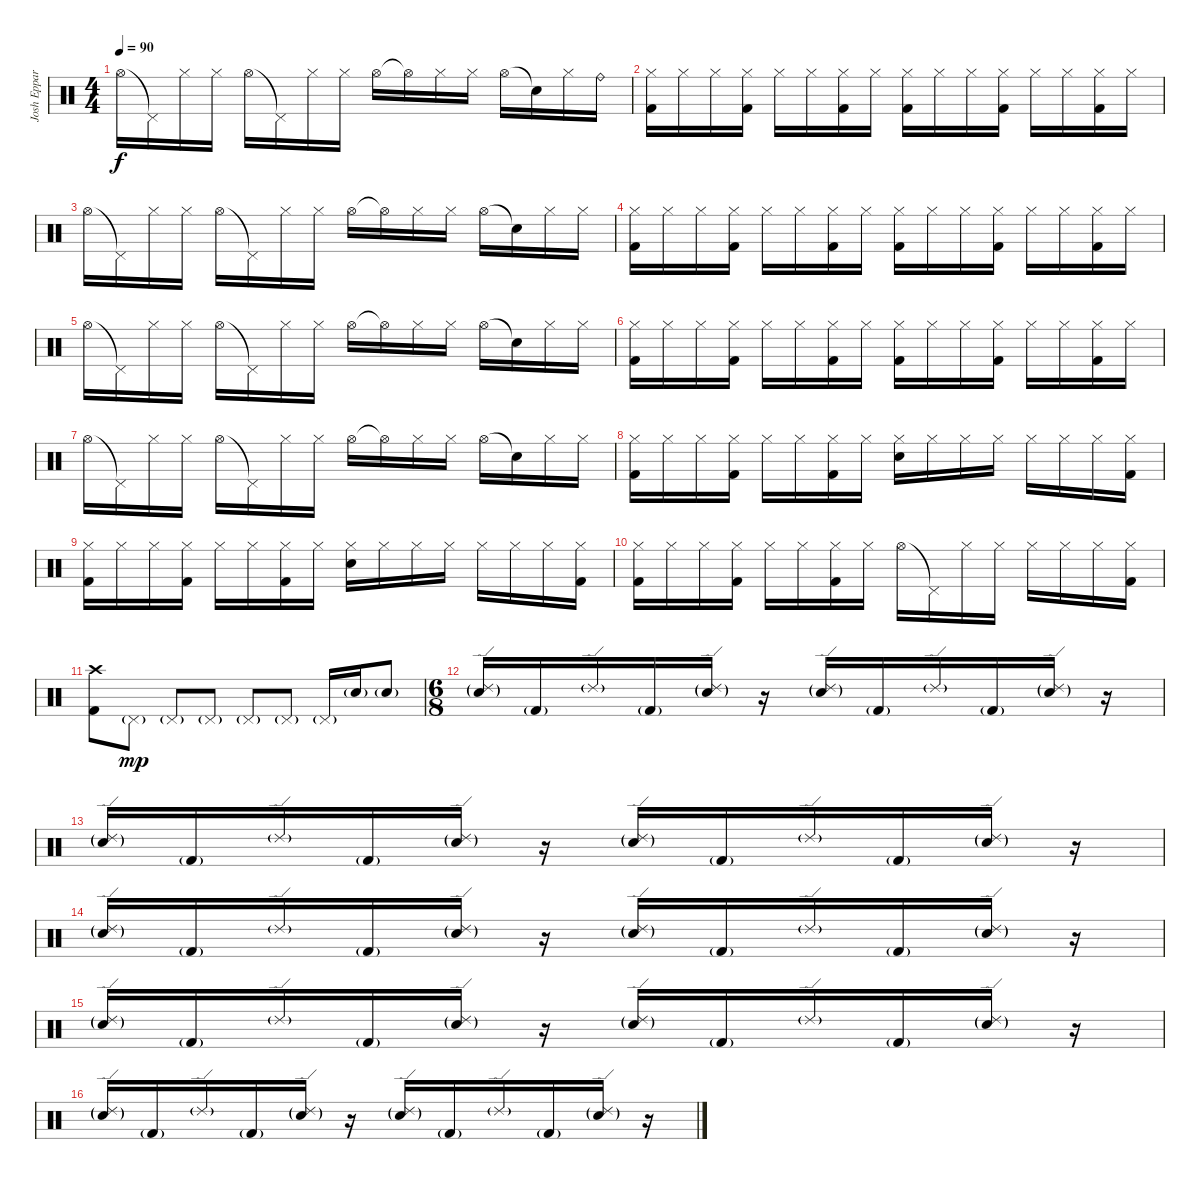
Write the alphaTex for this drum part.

\track ("Josh Eppard" "Josh Eppar") {instrument percussion}
\staff {score}
\articulation defaults
\ts (4 4)
\tempo 90
\clef neutral
\ks c "Hi-Hat (open)".16{dy f} "Pedal Hi-Hat (hit)"{t}.16 "Hi-Hat (closed)".16 "Hi-Hat (closed)".16 "Hi-Hat (open)".16 "Pedal Hi-Hat (hit)"{t}.16 "Hi-Hat (closed)".16 "Hi-Hat (closed)".16 "Hi-Hat (open)".16 "Hi-Hat (open)"{t}.16 "Hi-Hat (closed)".16 "Hi-Hat (closed)".16 "Hi-Hat (open)".16 "Snare (hit)"{t}.16 "Hi-Hat (closed)".16 "Ride (bell)".16
|
("Hi-Hat (closed)" "Kick (hit) 2").16 "Hi-Hat (closed)".16 "Hi-Hat (closed)".16 ("Hi-Hat (closed)" "Kick (hit) 2").16 "Hi-Hat (closed)".16 "Hi-Hat (closed)".16 ("Hi-Hat (closed)" "Kick (hit) 2").16 "Hi-Hat (closed)".16 ("Hi-Hat (closed)" "Kick (hit) 2").16 "Hi-Hat (closed)".16 "Hi-Hat (closed)".16 ("Hi-Hat (closed)" "Kick (hit) 2").16 "Hi-Hat (closed)".16 "Hi-Hat (closed)".16 ("Hi-Hat (closed)" "Kick (hit) 2").16 "Hi-Hat (closed)".16 |
"Hi-Hat (open)".16 "Pedal Hi-Hat (hit)"{t}.16 "Hi-Hat (closed)".16 "Hi-Hat (closed)".16 "Hi-Hat (open)".16 "Pedal Hi-Hat (hit)"{t}.16 "Hi-Hat (closed)".16 "Hi-Hat (closed)".16 "Hi-Hat (open)".16 "Hi-Hat (open)"{t}.16 "Hi-Hat (closed)".16 "Hi-Hat (closed)".16 "Hi-Hat (open)".16 "Snare (hit)"{t}.16 "Hi-Hat (closed)".16 "Hi-Hat (closed)".16 |
("Hi-Hat (closed)" "Kick (hit) 2").16 "Hi-Hat (closed)".16 "Hi-Hat (closed)".16 ("Hi-Hat (closed)" "Kick (hit) 2").16 "Hi-Hat (closed)".16 "Hi-Hat (closed)".16 ("Hi-Hat (closed)" "Kick (hit) 2").16 "Hi-Hat (closed)".16 ("Hi-Hat (closed)" "Kick (hit) 2").16 "Hi-Hat (closed)".16 "Hi-Hat (closed)".16 ("Hi-Hat (closed)" "Kick (hit) 2").16 "Hi-Hat (closed)".16 "Hi-Hat (closed)".16 ("Hi-Hat (closed)" "Kick (hit) 2").16 "Hi-Hat (closed)".16 |
"Hi-Hat (open)".16 "Pedal Hi-Hat (hit)"{t}.16 "Hi-Hat (closed)".16 "Hi-Hat (closed)".16 "Hi-Hat (open)".16 "Pedal Hi-Hat (hit)"{t}.16 "Hi-Hat (closed)".16 "Hi-Hat (closed)".16 "Hi-Hat (open)".16 "Hi-Hat (open)"{t}.16 "Hi-Hat (closed)".16 "Hi-Hat (closed)".16 "Hi-Hat (open)".16 "Snare (hit)"{t}.16 "Hi-Hat (closed)".16 "Hi-Hat (closed)".16 |
("Hi-Hat (closed)" "Kick (hit) 2").16 "Hi-Hat (closed)".16 "Hi-Hat (closed)".16 ("Hi-Hat (closed)" "Kick (hit) 2").16 "Hi-Hat (closed)".16 "Hi-Hat (closed)".16 ("Hi-Hat (closed)" "Kick (hit) 2").16 "Hi-Hat (closed)".16 ("Hi-Hat (closed)" "Kick (hit) 2").16 "Hi-Hat (closed)".16 "Hi-Hat (closed)".16 ("Hi-Hat (closed)" "Kick (hit) 2").16 "Hi-Hat (closed)".16 "Hi-Hat (closed)".16 ("Hi-Hat (closed)" "Kick (hit) 2").16 "Hi-Hat (closed)".16 |
"Hi-Hat (open)".16 "Pedal Hi-Hat (hit)"{t}.16 "Hi-Hat (closed)".16 "Hi-Hat (closed)".16 "Hi-Hat (open)".16 "Pedal Hi-Hat (hit)"{t}.16 "Hi-Hat (closed)".16 "Hi-Hat (closed)".16 "Hi-Hat (open)".16 "Hi-Hat (open)"{t}.16 "Hi-Hat (closed)".16 "Hi-Hat (closed)".16 "Hi-Hat (open)".16 "Snare (hit)"{t}.16 "Hi-Hat (closed)".16 "Hi-Hat (closed)".16 |
("Hi-Hat (closed)" "Kick (hit) 2").16 "Hi-Hat (closed)".16 "Hi-Hat (closed)".16 ("Hi-Hat (closed)" "Kick (hit) 2").16 "Hi-Hat (closed)".16 "Hi-Hat (closed)".16 ("Hi-Hat (closed)" "Kick (hit) 2").16 "Hi-Hat (closed)".16 ("Hi-Hat (closed)" "Electric Snare (hit)").16 "Hi-Hat (closed)".16 "Hi-Hat (closed)".16 "Hi-Hat (closed)".16 "Hi-Hat (closed)".16 "Hi-Hat (closed)".16 "Hi-Hat (closed)".16 ("Hi-Hat (closed)" "Kick (hit) 2").16 |
("Hi-Hat (closed)" "Kick (hit) 2").16 "Hi-Hat (closed)".16 "Hi-Hat (closed)".16 ("Hi-Hat (closed)" "Kick (hit) 2").16 "Hi-Hat (closed)".16 "Hi-Hat (closed)".16 ("Hi-Hat (closed)" "Kick (hit) 2").16 "Hi-Hat (closed)".16 ("Hi-Hat (closed)" "Electric Snare (hit)").16 "Hi-Hat (closed)".16 "Hi-Hat (closed)".16 "Hi-Hat (closed)".16 "Hi-Hat (closed)".16 "Hi-Hat (closed)".16 "Hi-Hat (closed)".16 ("Hi-Hat (closed)" "Kick (hit) 2").16 |
("Hi-Hat (closed)" "Kick (hit) 2").16 "Hi-Hat (closed)".16 "Hi-Hat (closed)".16 ("Hi-Hat (closed)" "Kick (hit) 2").16 "Hi-Hat (closed)".16 "Hi-Hat (closed)".16 ("Hi-Hat (closed)" "Kick (hit) 2").16 "Hi-Hat (closed)".16 "Hi-Hat (open)".16 "Pedal Hi-Hat (hit)"{t}.16 "Hi-Hat (closed)".16 "Hi-Hat (closed)".16 "Hi-Hat (closed)".16 "Hi-Hat (closed)".16 "Hi-Hat (closed)".16 ("Hi-Hat (closed)" "Kick (hit) 2").16 |
("Crash high (hit)" "Kick (hit) 2").8 "Pedal Hi-Hat (hit)"{g}.8{dy mp} "Pedal Hi-Hat (hit)"{g}.8 "Pedal Hi-Hat (hit)"{g}.8 "Pedal Hi-Hat (hit)"{g}.8 "Pedal Hi-Hat (hit)"{g}.8 "Pedal Hi-Hat (hit)"{g}.16 "Electric Snare (hit)"{g}.16 "Electric Snare (hit)"{g}.8 |
\ts (6 8)
("Ride (edge) 2"{g} "Electric Snare (hit)"{g}).16 "Kick (hit) 2"{g}.16 "Ride (edge) 2"{g}.16 "Kick (hit) 2"{g}.16 ("Ride (edge) 2"{g} "Electric Snare (hit)"{g}).16 r.16 ("Ride (edge) 2"{g} "Electric Snare (hit)"{g}).16 "Kick (hit) 2"{g}.16 "Ride (edge) 2"{g}.16 "Kick (hit) 2"{g}.16 ("Ride (edge) 2"{g} "Electric Snare (hit)"{g}).16 r.16 |
("Ride (edge) 2"{g} "Electric Snare (hit)"{g}).16 "Kick (hit) 2"{g}.16 "Ride (edge) 2"{g}.16 "Kick (hit) 2"{g}.16 ("Ride (edge) 2"{g} "Electric Snare (hit)"{g}).16 r.16 ("Ride (edge) 2"{g} "Electric Snare (hit)"{g}).16 "Kick (hit) 2"{g}.16 "Ride (edge) 2"{g}.16 "Kick (hit) 2"{g}.16 ("Ride (edge) 2"{g} "Electric Snare (hit)"{g}).16 r.16 |
("Ride (edge) 2"{g} "Electric Snare (hit)"{g}).16 "Kick (hit) 2"{g}.16 "Ride (edge) 2"{g}.16 "Kick (hit) 2"{g}.16 ("Ride (edge) 2"{g} "Electric Snare (hit)"{g}).16 r.16 ("Ride (edge) 2"{g} "Electric Snare (hit)"{g}).16 "Kick (hit) 2"{g}.16 "Ride (edge) 2"{g}.16 "Kick (hit) 2"{g}.16 ("Ride (edge) 2"{g} "Electric Snare (hit)"{g}).16 r.16 |
("Ride (edge) 2"{g} "Electric Snare (hit)"{g}).16 "Kick (hit) 2"{g}.16 "Ride (edge) 2"{g}.16 "Kick (hit) 2"{g}.16 ("Ride (edge) 2"{g} "Electric Snare (hit)"{g}).16 r.16 ("Ride (edge) 2"{g} "Electric Snare (hit)"{g}).16 "Kick (hit) 2"{g}.16 "Ride (edge) 2"{g}.16 "Kick (hit) 2"{g}.16 ("Ride (edge) 2"{g} "Electric Snare (hit)"{g}).16 r.16 |
("Ride (edge) 2"{g} "Electric Snare (hit)"{g}).16 "Kick (hit) 2"{g}.16 "Ride (edge) 2"{g}.16 "Kick (hit) 2"{g}.16 ("Ride (edge) 2"{g} "Electric Snare (hit)"{g}).16 r.16 ("Ride (edge) 2"{g} "Electric Snare (hit)"{g}).16 "Kick (hit) 2"{g}.16 "Ride (edge) 2"{g}.16 "Kick (hit) 2"{g}.16 ("Ride (edge) 2"{g} "Electric Snare (hit)"{g}).16 r.16
